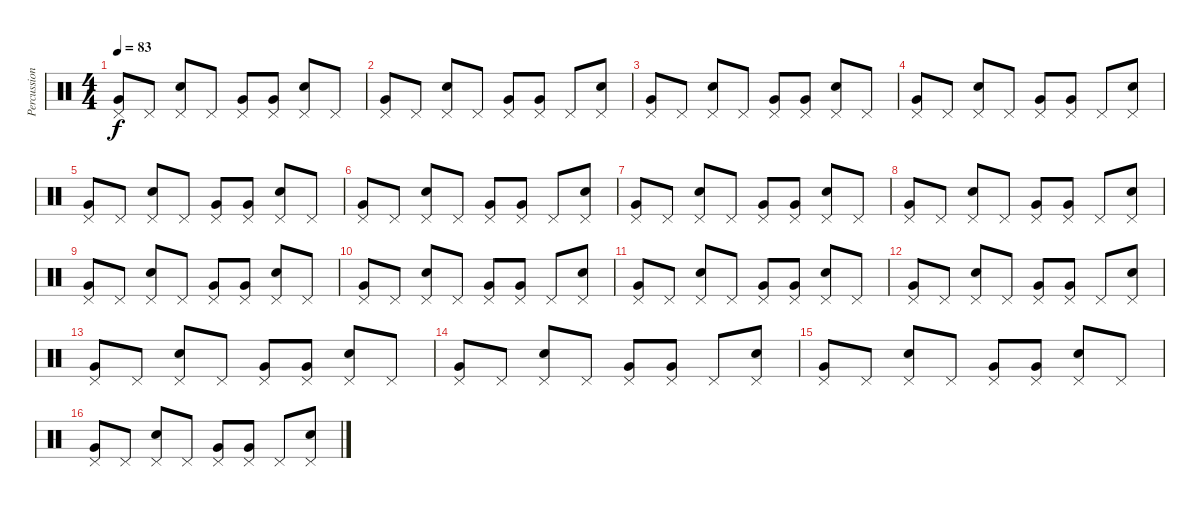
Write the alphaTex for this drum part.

\track ("Percussion" "Percussion") {instrument percussion}
\staff {score}
\articulation defaults
\ts (4 4)
\tempo 83
\clef neutral
\ks c
("Pedal Hi-Hat (hit)" "Very Low Tom (hit)").8{dy f} "Pedal Hi-Hat (hit)".8 ("Pedal Hi-Hat (hit)" "Snare (hit) 2").8 "Pedal Hi-Hat (hit)".8 ("Pedal Hi-Hat (hit)" "Very Low Tom (hit)").8 ("Pedal Hi-Hat (hit)" "Very Low Tom (hit)").8 ("Pedal Hi-Hat (hit)" "Snare (hit) 2").8 "Pedal Hi-Hat (hit)".8 |
("Pedal Hi-Hat (hit)" "Very Low Tom (hit)").8 "Pedal Hi-Hat (hit)".8 ("Pedal Hi-Hat (hit)" "Snare (hit) 2").8 "Pedal Hi-Hat (hit)".8 ("Pedal Hi-Hat (hit)" "Very Low Tom (hit)").8 ("Pedal Hi-Hat (hit)" "Very Low Tom (hit)").8 "Pedal Hi-Hat (hit)".8 ("Pedal Hi-Hat (hit)" "Snare (hit) 2").8 |
("Pedal Hi-Hat (hit)" "Very Low Tom (hit)").8 "Pedal Hi-Hat (hit)".8 ("Pedal Hi-Hat (hit)" "Snare (hit) 2").8 "Pedal Hi-Hat (hit)".8 ("Pedal Hi-Hat (hit)" "Very Low Tom (hit)").8 ("Pedal Hi-Hat (hit)" "Very Low Tom (hit)").8 ("Pedal Hi-Hat (hit)" "Snare (hit) 2").8 "Pedal Hi-Hat (hit)".8 |
("Pedal Hi-Hat (hit)" "Very Low Tom (hit)").8 "Pedal Hi-Hat (hit)".8 ("Pedal Hi-Hat (hit)" "Snare (hit) 2").8 "Pedal Hi-Hat (hit)".8 ("Pedal Hi-Hat (hit)" "Very Low Tom (hit)").8 ("Pedal Hi-Hat (hit)" "Very Low Tom (hit)").8 "Pedal Hi-Hat (hit)".8 ("Pedal Hi-Hat (hit)" "Snare (hit) 2").8 |
("Pedal Hi-Hat (hit)" "Very Low Tom (hit)").8 "Pedal Hi-Hat (hit)".8 ("Pedal Hi-Hat (hit)" "Snare (hit) 2").8 "Pedal Hi-Hat (hit)".8 ("Pedal Hi-Hat (hit)" "Very Low Tom (hit)").8 ("Pedal Hi-Hat (hit)" "Very Low Tom (hit)").8 ("Pedal Hi-Hat (hit)" "Snare (hit) 2").8 "Pedal Hi-Hat (hit)".8 |
("Pedal Hi-Hat (hit)" "Very Low Tom (hit)").8 "Pedal Hi-Hat (hit)".8 ("Pedal Hi-Hat (hit)" "Snare (hit) 2").8 "Pedal Hi-Hat (hit)".8 ("Pedal Hi-Hat (hit)" "Very Low Tom (hit)").8 ("Pedal Hi-Hat (hit)" "Very Low Tom (hit)").8 "Pedal Hi-Hat (hit)".8 ("Pedal Hi-Hat (hit)" "Snare (hit) 2").8 |
("Pedal Hi-Hat (hit)" "Very Low Tom (hit)").8 "Pedal Hi-Hat (hit)".8 ("Pedal Hi-Hat (hit)" "Snare (hit) 2").8 "Pedal Hi-Hat (hit)".8 ("Pedal Hi-Hat (hit)" "Very Low Tom (hit)").8 ("Pedal Hi-Hat (hit)" "Very Low Tom (hit)").8 ("Pedal Hi-Hat (hit)" "Snare (hit) 2").8 "Pedal Hi-Hat (hit)".8 |
("Pedal Hi-Hat (hit)" "Very Low Tom (hit)").8 "Pedal Hi-Hat (hit)".8 ("Pedal Hi-Hat (hit)" "Snare (hit) 2").8 "Pedal Hi-Hat (hit)".8 ("Pedal Hi-Hat (hit)" "Very Low Tom (hit)").8 ("Pedal Hi-Hat (hit)" "Very Low Tom (hit)").8 "Pedal Hi-Hat (hit)".8 ("Pedal Hi-Hat (hit)" "Snare (hit) 2").8 |
("Pedal Hi-Hat (hit)" "Very Low Tom (hit)").8 "Pedal Hi-Hat (hit)".8 ("Pedal Hi-Hat (hit)" "Snare (hit) 2").8 "Pedal Hi-Hat (hit)".8 ("Pedal Hi-Hat (hit)" "Very Low Tom (hit)").8 ("Pedal Hi-Hat (hit)" "Very Low Tom (hit)").8 ("Pedal Hi-Hat (hit)" "Snare (hit) 2").8 "Pedal Hi-Hat (hit)".8 |
("Pedal Hi-Hat (hit)" "Very Low Tom (hit)").8 "Pedal Hi-Hat (hit)".8 ("Pedal Hi-Hat (hit)" "Snare (hit) 2").8 "Pedal Hi-Hat (hit)".8 ("Pedal Hi-Hat (hit)" "Very Low Tom (hit)").8 ("Pedal Hi-Hat (hit)" "Very Low Tom (hit)").8 "Pedal Hi-Hat (hit)".8 ("Pedal Hi-Hat (hit)" "Snare (hit) 2").8 |
("Pedal Hi-Hat (hit)" "Very Low Tom (hit)").8 "Pedal Hi-Hat (hit)".8 ("Pedal Hi-Hat (hit)" "Snare (hit) 2").8 "Pedal Hi-Hat (hit)".8 ("Pedal Hi-Hat (hit)" "Very Low Tom (hit)").8 ("Pedal Hi-Hat (hit)" "Very Low Tom (hit)").8 ("Pedal Hi-Hat (hit)" "Snare (hit) 2").8 "Pedal Hi-Hat (hit)".8 |
("Pedal Hi-Hat (hit)" "Very Low Tom (hit)").8 "Pedal Hi-Hat (hit)".8 ("Pedal Hi-Hat (hit)" "Snare (hit) 2").8 "Pedal Hi-Hat (hit)".8 ("Pedal Hi-Hat (hit)" "Very Low Tom (hit)").8 ("Pedal Hi-Hat (hit)" "Very Low Tom (hit)").8 "Pedal Hi-Hat (hit)".8 ("Pedal Hi-Hat (hit)" "Snare (hit) 2").8 |
("Pedal Hi-Hat (hit)" "Very Low Tom (hit)").8 "Pedal Hi-Hat (hit)".8 ("Pedal Hi-Hat (hit)" "Snare (hit) 2").8 "Pedal Hi-Hat (hit)".8 ("Pedal Hi-Hat (hit)" "Very Low Tom (hit)").8 ("Pedal Hi-Hat (hit)" "Very Low Tom (hit)").8 ("Pedal Hi-Hat (hit)" "Snare (hit) 2").8 "Pedal Hi-Hat (hit)".8 |
("Pedal Hi-Hat (hit)" "Very Low Tom (hit)").8 "Pedal Hi-Hat (hit)".8 ("Pedal Hi-Hat (hit)" "Snare (hit) 2").8 "Pedal Hi-Hat (hit)".8 ("Pedal Hi-Hat (hit)" "Very Low Tom (hit)").8 ("Pedal Hi-Hat (hit)" "Very Low Tom (hit)").8 "Pedal Hi-Hat (hit)".8 ("Pedal Hi-Hat (hit)" "Snare (hit) 2").8 |
("Pedal Hi-Hat (hit)" "Very Low Tom (hit)").8 "Pedal Hi-Hat (hit)".8 ("Pedal Hi-Hat (hit)" "Snare (hit) 2").8 "Pedal Hi-Hat (hit)".8 ("Pedal Hi-Hat (hit)" "Very Low Tom (hit)").8 ("Pedal Hi-Hat (hit)" "Very Low Tom (hit)").8 ("Pedal Hi-Hat (hit)" "Snare (hit) 2").8 "Pedal Hi-Hat (hit)".8 |
("Pedal Hi-Hat (hit)" "Very Low Tom (hit)").8 "Pedal Hi-Hat (hit)".8 ("Pedal Hi-Hat (hit)" "Snare (hit) 2").8 "Pedal Hi-Hat (hit)".8 ("Pedal Hi-Hat (hit)" "Very Low Tom (hit)").8 ("Pedal Hi-Hat (hit)" "Very Low Tom (hit)").8 "Pedal Hi-Hat (hit)".8 ("Pedal Hi-Hat (hit)" "Snare (hit) 2").8
